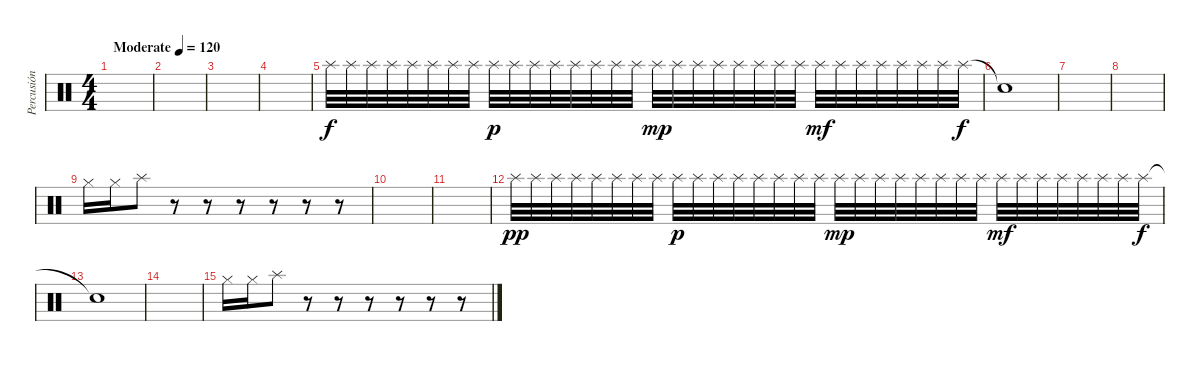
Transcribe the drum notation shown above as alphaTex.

\track ("Percusión" "Percusión") {instrument percussion}
\staff {score}
\articulation defaults
\ts (4 4)
\tempo (120 "Moderate")
\clef neutral
\ks c
|
|
|
|
"Splash (hit)".32 "Splash (hit)".32 "Splash (hit)".32 "Splash (hit)".32 "Splash (hit)".32 "Splash (hit)".32 "Splash (hit)".32 "Splash (hit)".32 "Splash (hit)".32{dy p} "Splash (hit)".32 "Splash (hit)".32 "Splash (hit)".32 "Splash (hit)".32 "Splash (hit)".32 "Splash (hit)".32 "Splash (hit)".32 "Splash (hit)".32{dy mp} "Splash (hit)".32 "Splash (hit)".32 "Splash (hit)".32 "Splash (hit)".32 "Splash (hit)".32 "Splash (hit)".32 "Splash (hit)".32 "Splash (hit)".32{dy mf} "Splash (hit)".32 "Splash (hit)".32 "Splash (hit)".32 "Splash (hit)".32 "Splash (hit)".32 "Splash (hit)".32 "Splash (hit)".32{dy f} |
"Snare (hit)"{t}.1 |
|
|
"Hi-Hat (closed)".16 "Hi-Hat (closed)".16 "Splash (hit)".8 r.8 r.8 r.8 r.8 r.8 r.8 |
|
|
"Splash (hit)".32{dy pp} "Splash (hit)".32 "Splash (hit)".32 "Splash (hit)".32 "Splash (hit)".32 "Splash (hit)".32 "Splash (hit)".32 "Splash (hit)".32 "Splash (hit)".32{dy p} "Splash (hit)".32 "Splash (hit)".32 "Splash (hit)".32 "Splash (hit)".32 "Splash (hit)".32 "Splash (hit)".32 "Splash (hit)".32 "Splash (hit)".32{dy mp} "Splash (hit)".32 "Splash (hit)".32 "Splash (hit)".32 "Splash (hit)".32 "Splash (hit)".32 "Splash (hit)".32 "Splash (hit)".32 "Splash (hit)".32{dy mf} "Splash (hit)".32 "Splash (hit)".32 "Splash (hit)".32 "Splash (hit)".32 "Splash (hit)".32 "Splash (hit)".32 "Splash (hit)".32{dy f} |
"Snare (hit)"{t}.1 |
|
"Hi-Hat (closed)".16 "Hi-Hat (closed)".16 "Splash (hit)".8 r.8 r.8 r.8 r.8 r.8 r.8
